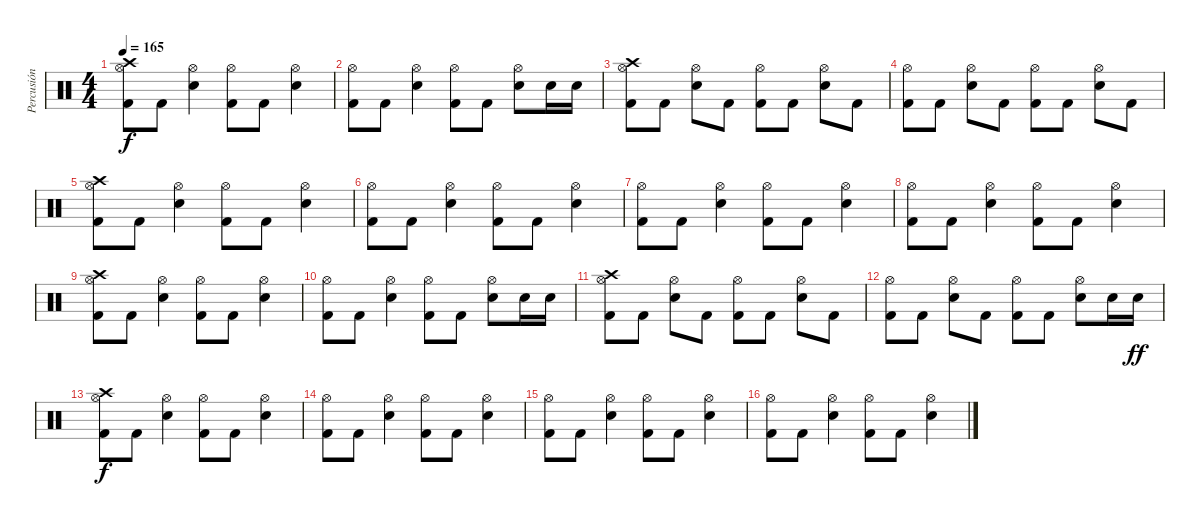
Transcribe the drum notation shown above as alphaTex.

\track ("Percusión" "Percusión") {instrument percussion}
\staff {score}
\articulation defaults
\ts (4 4)
\tempo 165
\clef neutral
\ks c
("Crash high (hit)" "Hi-Hat (open)" "Kick (hit) 2").8{dy f} "Kick (hit) 2".8 ("Hi-Hat (open)" "Snare (hit) 2").4 ("Hi-Hat (open)" "Kick (hit) 2").8 "Kick (hit) 2".8 ("Hi-Hat (open)" "Snare (hit) 2").4 |
("Hi-Hat (open)" "Kick (hit) 2").8 "Kick (hit) 2".8 ("Hi-Hat (open)" "Snare (hit) 2").4 ("Hi-Hat (open)" "Kick (hit) 2").8 "Kick (hit) 2".8 ("Hi-Hat (open)" "Snare (hit) 2").8 "Snare (hit) 2".16 "Snare (hit) 2".16 |
("Crash high (hit)" "Hi-Hat (open)" "Kick (hit) 2").8 "Kick (hit) 2".8 ("Hi-Hat (open)" "Snare (hit) 2").8 "Kick (hit) 2".8 ("Hi-Hat (open)" "Kick (hit) 2").8 "Kick (hit) 2".8 ("Hi-Hat (open)" "Snare (hit) 2").8 "Kick (hit) 2".8 |
("Hi-Hat (open)" "Kick (hit) 2").8 "Kick (hit) 2".8 ("Hi-Hat (open)" "Snare (hit) 2").8 "Kick (hit) 2".8 ("Hi-Hat (open)" "Kick (hit) 2").8 "Kick (hit) 2".8 ("Hi-Hat (open)" "Snare (hit) 2").8 "Kick (hit) 2".8 |
("Crash high (hit)" "Hi-Hat (open)" "Kick (hit) 2").8 "Kick (hit) 2".8 ("Hi-Hat (open)" "Snare (hit) 2").4 ("Hi-Hat (open)" "Kick (hit) 2").8 "Kick (hit) 2".8 ("Hi-Hat (open)" "Snare (hit) 2").4 |
("Hi-Hat (open)" "Kick (hit) 2").8 "Kick (hit) 2".8 ("Hi-Hat (open)" "Snare (hit) 2").4 ("Hi-Hat (open)" "Kick (hit) 2").8 "Kick (hit) 2".8 ("Hi-Hat (open)" "Snare (hit) 2").4 |
("Hi-Hat (open)" "Kick (hit) 2").8 "Kick (hit) 2".8 ("Hi-Hat (open)" "Snare (hit) 2").4 ("Hi-Hat (open)" "Kick (hit) 2").8 "Kick (hit) 2".8 ("Hi-Hat (open)" "Snare (hit) 2").4 |
("Hi-Hat (open)" "Kick (hit) 2").8 "Kick (hit) 2".8 ("Hi-Hat (open)" "Snare (hit) 2").4 ("Hi-Hat (open)" "Kick (hit) 2").8 "Kick (hit) 2".8 ("Hi-Hat (open)" "Snare (hit) 2").4 |
("Crash high (hit)" "Hi-Hat (open)" "Kick (hit) 2").8 "Kick (hit) 2".8 ("Hi-Hat (open)" "Snare (hit) 2").4 ("Hi-Hat (open)" "Kick (hit) 2").8 "Kick (hit) 2".8 ("Hi-Hat (open)" "Snare (hit) 2").4 |
("Hi-Hat (open)" "Kick (hit) 2").8 "Kick (hit) 2".8 ("Hi-Hat (open)" "Snare (hit) 2").4 ("Hi-Hat (open)" "Kick (hit) 2").8 "Kick (hit) 2".8 ("Hi-Hat (open)" "Snare (hit) 2").8 "Snare (hit) 2".16 "Snare (hit) 2".16 |
("Crash high (hit)" "Hi-Hat (open)" "Kick (hit) 2").8 "Kick (hit) 2".8 ("Hi-Hat (open)" "Snare (hit) 2").8 "Kick (hit) 2".8 ("Hi-Hat (open)" "Kick (hit) 2").8 "Kick (hit) 2".8 ("Hi-Hat (open)" "Snare (hit) 2").8 "Kick (hit) 2".8 |
("Hi-Hat (open)" "Kick (hit) 2").8 "Kick (hit) 2".8 ("Hi-Hat (open)" "Snare (hit) 2").8 "Kick (hit) 2".8 ("Hi-Hat (open)" "Kick (hit) 2").8 "Kick (hit) 2".8 ("Hi-Hat (open)" "Snare (hit) 2").8 "Snare (hit) 2".16 "Snare (hit) 2".16{dy ff} |
("Crash high (hit)" "Hi-Hat (open)" "Kick (hit) 2").8{dy f} "Kick (hit) 2".8 ("Hi-Hat (open)" "Snare (hit) 2").4 ("Hi-Hat (open)" "Kick (hit) 2").8 "Kick (hit) 2".8 ("Hi-Hat (open)" "Snare (hit) 2").4 |
("Hi-Hat (open)" "Kick (hit) 2").8 "Kick (hit) 2".8 ("Hi-Hat (open)" "Snare (hit) 2").4 ("Hi-Hat (open)" "Kick (hit) 2").8 "Kick (hit) 2".8 ("Hi-Hat (open)" "Snare (hit) 2").4 |
("Hi-Hat (open)" "Kick (hit) 2").8 "Kick (hit) 2".8 ("Hi-Hat (open)" "Snare (hit) 2").4 ("Hi-Hat (open)" "Kick (hit) 2").8 "Kick (hit) 2".8 ("Hi-Hat (open)" "Snare (hit) 2").4 |
("Hi-Hat (open)" "Kick (hit) 2").8 "Kick (hit) 2".8 ("Hi-Hat (open)" "Snare (hit) 2").4 ("Hi-Hat (open)" "Kick (hit) 2").8 "Kick (hit) 2".8 ("Hi-Hat (open)" "Snare (hit) 2").4
